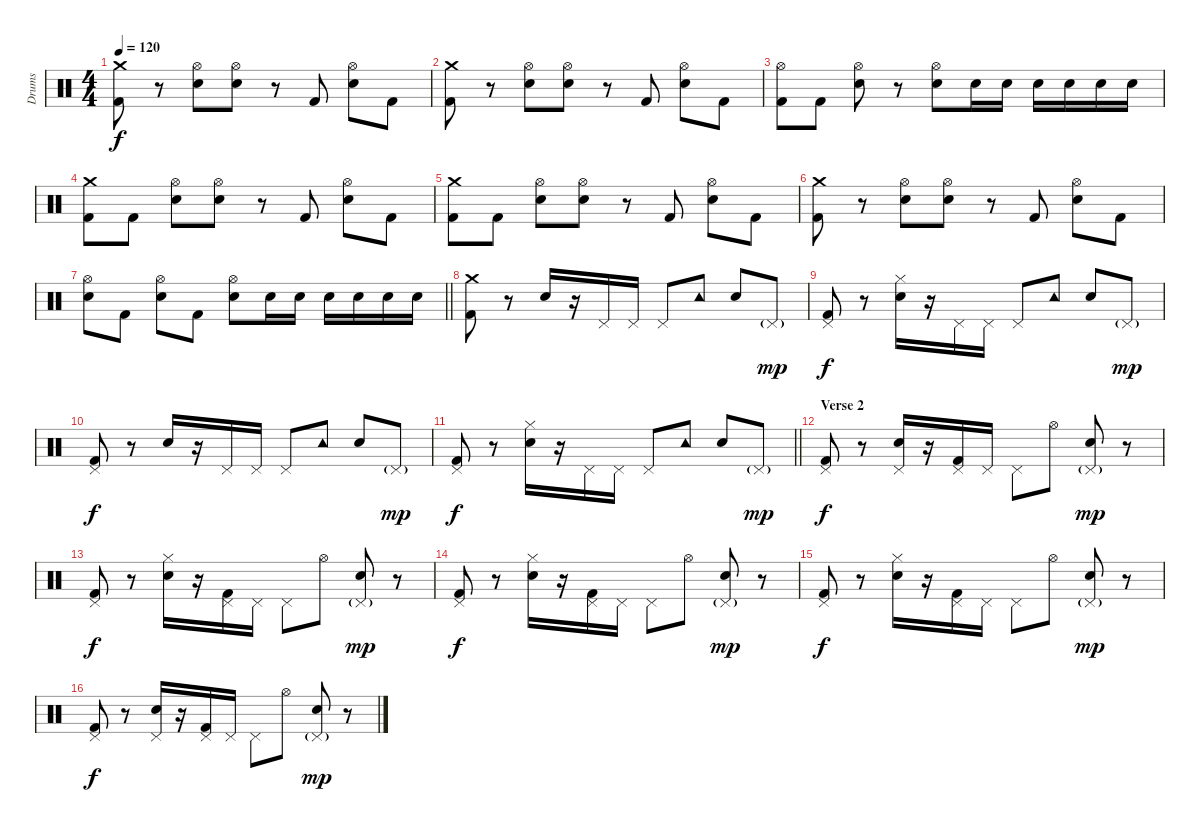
\track ("Drums" "Drums") {instrument percussion}
\staff {score}
\articulation defaults
\ts (4 4)
\tempo 120
\clef neutral
\ks c
("Crash medium (hit)" "Kick (hit) 2").8{dy f} r.8 ("Hi-Hat (open)" "Electric Snare (hit)").8 ("Hi-Hat (open)" "Electric Snare (hit)").8 r.8 "Kick (hit) 2".8 ("Hi-Hat (open)" "Electric Snare (hit)").8 "Kick (hit) 2".8 |
("Crash medium (hit)" "Kick (hit) 2").8 r.8 ("Hi-Hat (open)" "Electric Snare (hit)").8 ("Hi-Hat (open)" "Electric Snare (hit)").8 r.8 "Kick (hit) 2".8 ("Hi-Hat (open)" "Electric Snare (hit)").8 "Kick (hit) 2".8 |
("Hi-Hat (open)" "Kick (hit) 2").8 "Kick (hit) 2".8 ("Hi-Hat (open)" "Electric Snare (hit)").8 r.8 ("Hi-Hat (open)" "Electric Snare (hit)").8 "Electric Snare (hit)".16 "Electric Snare (hit)".16 "Electric Snare (hit)".16 "Electric Snare (hit)".16 "Electric Snare (hit)".16 "Electric Snare (hit)".16 |
("Crash medium (hit)" "Kick (hit) 2").8 "Kick (hit) 2".8 ("Hi-Hat (open)" "Electric Snare (hit)").8 ("Hi-Hat (open)" "Electric Snare (hit)").8 r.8 "Kick (hit) 2".8 ("Hi-Hat (open)" "Electric Snare (hit)").8 "Kick (hit) 2".8 |
("Crash medium (hit)" "Kick (hit) 2").8 "Kick (hit) 2".8 ("Hi-Hat (open)" "Electric Snare (hit)").8 ("Hi-Hat (open)" "Electric Snare (hit)").8 r.8 "Kick (hit) 2".8 ("Hi-Hat (open)" "Electric Snare (hit)").8 "Kick (hit) 2".8 |
("Crash medium (hit)" "Kick (hit) 2").8 r.8 ("Hi-Hat (open)" "Electric Snare (hit)").8 ("Hi-Hat (open)" "Electric Snare (hit)").8 r.8 "Kick (hit) 2".8 ("Hi-Hat (open)" "Electric Snare (hit)").8 "Kick (hit) 2".8 |
\barLineRight lightlight
("Hi-Hat (open)" "Electric Snare (hit)").8 "Kick (hit) 2".8 ("Hi-Hat (open)" "Electric Snare (hit)").8 "Kick (hit) 2".8 ("Hi-Hat (open)" "Electric Snare (hit)").8 "Electric Snare (hit)".16 "Electric Snare (hit)".16 "Electric Snare (hit)".16 "Electric Snare (hit)".16 "Electric Snare (hit)".16 "Electric Snare (hit)".16 |
\section ("" "")
("Crash medium (hit)" "Kick (hit) 2").8 r.8 "Electric Snare (hit)".16 r.16 "Pedal Hi-Hat (hit)".16 "Pedal Hi-Hat (hit)".16 "Pedal Hi-Hat (hit)".8 "Tambourine (hit)".8 "Electric Snare (hit)".8 "Pedal Hi-Hat (hit)"{g}.8{dy mp} |
("Pedal Hi-Hat (hit)" "Kick (hit) 2").8{dy f} r.8 ("Hi-Hat (closed)" "Electric Snare (hit)").16 r.16 "Pedal Hi-Hat (hit)".16 "Pedal Hi-Hat (hit)".16 "Pedal Hi-Hat (hit)".8 "Tambourine (hit)".8 "Electric Snare (hit)".8 "Pedal Hi-Hat (hit)"{g}.8{dy mp} |
("Pedal Hi-Hat (hit)" "Kick (hit) 2").8{dy f} r.8 "Electric Snare (hit)".16 r.16 "Pedal Hi-Hat (hit)".16 "Pedal Hi-Hat (hit)".16 "Pedal Hi-Hat (hit)".8 "Tambourine (hit)".8 "Electric Snare (hit)".8 "Pedal Hi-Hat (hit)"{g}.8{dy mp} |
\barLineRight lightlight
("Pedal Hi-Hat (hit)" "Kick (hit) 2").8{dy f} r.8 ("Hi-Hat (closed)" "Electric Snare (hit)").16 r.16 "Pedal Hi-Hat (hit)".16 "Pedal Hi-Hat (hit)".16 "Pedal Hi-Hat (hit)".8 "Tambourine (hit)".8 "Electric Snare (hit)".8 "Pedal Hi-Hat (hit)"{g}.8{dy mp} |
\section ("" "Verse 2 ")
("Pedal Hi-Hat (hit)" "Kick (hit) 2").8{dy f} r.8 ("Pedal Hi-Hat (hit)" "Electric Snare (hit)").16 r.16 ("Pedal Hi-Hat (hit)" "Kick (hit) 2").16 "Pedal Hi-Hat (hit)".16 "Pedal Hi-Hat (hit)".8 "Hi-Hat (open)".8 ("Pedal Hi-Hat (hit)"{g} "Electric Snare (hit)").8{dy mp} r.8 |
("Pedal Hi-Hat (hit)" "Kick (hit) 2").8{dy f} r.8 ("Hi-Hat (closed)" "Electric Snare (hit)").16 r.16 ("Pedal Hi-Hat (hit)" "Kick (hit) 2").16 "Pedal Hi-Hat (hit)".16 "Pedal Hi-Hat (hit)".8 "Hi-Hat (open)".8 ("Pedal Hi-Hat (hit)"{g} "Electric Snare (hit)").8{dy mp} r.8 |
("Pedal Hi-Hat (hit)" "Kick (hit) 2").8{dy f} r.8 ("Hi-Hat (closed)" "Electric Snare (hit)").16 r.16 ("Pedal Hi-Hat (hit)" "Kick (hit) 2").16 "Pedal Hi-Hat (hit)".16 "Pedal Hi-Hat (hit)".8 "Hi-Hat (open)".8 ("Pedal Hi-Hat (hit)"{g} "Electric Snare (hit)").8{dy mp} r.8 |
("Pedal Hi-Hat (hit)" "Kick (hit) 2").8{dy f} r.8 ("Hi-Hat (closed)" "Electric Snare (hit)").16 r.16 ("Pedal Hi-Hat (hit)" "Kick (hit) 2").16 "Pedal Hi-Hat (hit)".16 "Pedal Hi-Hat (hit)".8 "Hi-Hat (open)".8 ("Pedal Hi-Hat (hit)"{g} "Electric Snare (hit)").8{dy mp} r.8 |
("Pedal Hi-Hat (hit)" "Kick (hit) 2").8{dy f} r.8 ("Pedal Hi-Hat (hit)" "Electric Snare (hit)").16 r.16 ("Pedal Hi-Hat (hit)" "Kick (hit) 2").16 "Pedal Hi-Hat (hit)".16 "Pedal Hi-Hat (hit)".8 "Hi-Hat (open)".8 ("Pedal Hi-Hat (hit)"{g} "Electric Snare (hit)").8{dy mp} r.8
